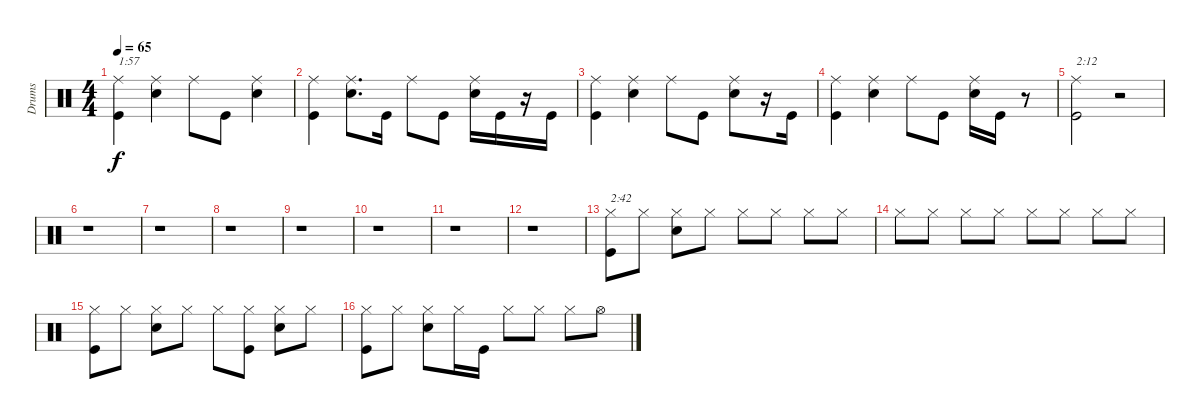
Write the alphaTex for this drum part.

\track ("Drums" "Drums") {instrument percussion}
\staff {score}
\articulation defaults
\ts (4 4)
\tempo 65
\clef neutral
\ks c
("Kick (hit)" "Ride (middle)").4{txt "1:57" dy f} ("Ride (middle)" "Snare (hit) 2").4 "Ride (middle)".8 "Kick (hit)".8 ("Ride (middle)" "Snare (hit) 2").4 |
("Kick (hit)" "Ride (middle)").4 ("Snare (hit) 2" "Ride (middle)").8{d} "Kick (hit)".16 "Ride (middle)".8 "Kick (hit)".8 ("Snare (hit) 2" "Ride (middle)").16 "Kick (hit)".16 r.16 "Kick (hit)".16 |
("Kick (hit)" "Ride (middle)").4 ("Ride (middle)" "Snare (hit) 2").4 "Ride (middle)".8 "Kick (hit)".8 ("Ride (middle)" "Snare (hit) 2").8 r.16 "Kick (hit)".16 |
("Kick (hit)" "Ride (middle)").4 ("Snare (hit) 2" "Ride (middle)").4 "Ride (middle)".8 "Kick (hit)".8 ("Snare (hit) 2" "Ride (middle)").16 "Kick (hit)".16 r.8 |
("Kick (hit)" "Ride (middle)").2{txt "2:12"} r.2 |
r.1 |
r.1 |
r.1 |
r.1 |
r.1 |
r.1 |
r.1 |
("Kick (hit)" "Hi-Hat (closed)").8{txt "2:42"} "Hi-Hat (closed)".8 ("Hi-Hat (closed)" "Snare (hit) 2").8 "Hi-Hat (closed)".8 "Hi-Hat (closed)".8 "Hi-Hat (closed)".8 "Hi-Hat (closed)".8 "Hi-Hat (closed)".8 |
"Hi-Hat (closed)".8 "Hi-Hat (closed)".8 "Hi-Hat (closed)".8 "Hi-Hat (closed)".8 "Hi-Hat (closed)".8 "Hi-Hat (closed)".8 "Hi-Hat (closed)".8 "Hi-Hat (closed)".8 |
("Kick (hit)" "Hi-Hat (closed)").8 "Hi-Hat (closed)".8 ("Hi-Hat (closed)" "Snare (hit) 2").8 "Hi-Hat (closed)".8 "Hi-Hat (closed)".8 ("Hi-Hat (closed)" "Kick (hit)").8 ("Hi-Hat (closed)" "Snare (hit) 2").8 "Hi-Hat (closed)".8 |
("Hi-Hat (closed)" "Kick (hit)").8 "Hi-Hat (closed)".8 ("Hi-Hat (closed)" "Snare (hit) 2").8 "Hi-Hat (closed)".16 "Kick (hit)".16 "Hi-Hat (closed)".8 "Hi-Hat (closed)".8 "Hi-Hat (closed)".8 "Hi-Hat (open)".8
